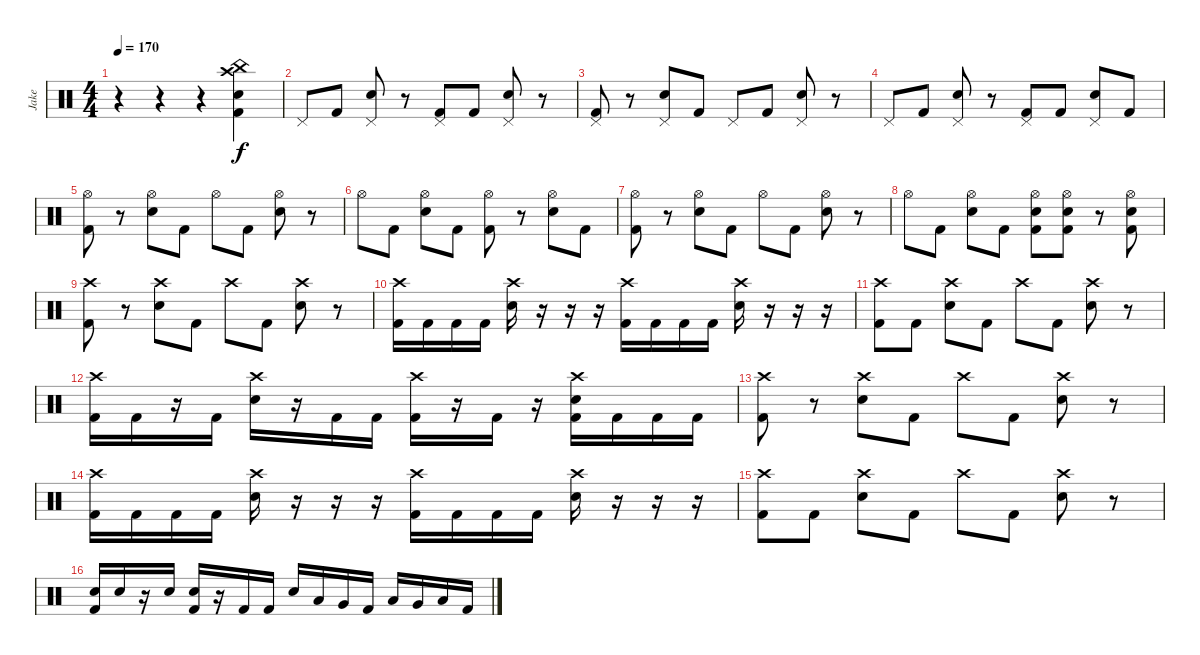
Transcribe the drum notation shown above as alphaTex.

\track ("Jake" "Jake") {instrument percussion}
\staff {score}
\articulation defaults
\ts (4 4)
\tempo 170
\clef neutral
\ks c
r.4{dy f} r.4 r.4 ("Crash high (hit)" "China (hit)" "Electric Snare (hit)" "Kick (hit) 2").4 |
"Pedal Hi-Hat (hit)".8 "Kick (hit) 2".8 ("Pedal Hi-Hat (hit)" "Electric Snare (hit)").8 r.8 ("Pedal Hi-Hat (hit)" "Kick (hit) 2").8 "Kick (hit) 2".8 ("Pedal Hi-Hat (hit)" "Electric Snare (hit)").8 r.8 |
("Pedal Hi-Hat (hit)" "Kick (hit) 2").8 r.8 ("Pedal Hi-Hat (hit)" "Electric Snare (hit)").8 "Kick (hit) 2".8 "Pedal Hi-Hat (hit)".8 "Kick (hit) 2".8 ("Pedal Hi-Hat (hit)" "Electric Snare (hit)").8 r.8 |
"Pedal Hi-Hat (hit)".8 "Kick (hit) 2".8 ("Pedal Hi-Hat (hit)" "Electric Snare (hit)").8 r.8 ("Pedal Hi-Hat (hit)" "Kick (hit) 2").8 "Kick (hit) 2".8 ("Pedal Hi-Hat (hit)" "Electric Snare (hit)").8 "Kick (hit) 2".8 |
("Hi-Hat (open)" "Kick (hit) 2").8 r.8 ("Hi-Hat (open)" "Electric Snare (hit)").8 "Kick (hit) 2".8 "Hi-Hat (open)".8 "Kick (hit) 2".8 ("Hi-Hat (open)" "Electric Snare (hit)").8 r.8 |
"Hi-Hat (open)".8 "Kick (hit) 2".8 ("Hi-Hat (open)" "Electric Snare (hit)").8 "Kick (hit) 2".8 ("Hi-Hat (open)" "Kick (hit) 2").8 r.8 ("Hi-Hat (open)" "Electric Snare (hit)").8 "Kick (hit) 2".8 |
("Hi-Hat (open)" "Kick (hit) 2").8 r.8 ("Hi-Hat (open)" "Electric Snare (hit)").8 "Kick (hit) 2".8 "Hi-Hat (open)".8 "Kick (hit) 2".8 ("Hi-Hat (open)" "Electric Snare (hit)").8 r.8 |
"Hi-Hat (open)".8 "Kick (hit) 2".8 ("Hi-Hat (open)" "Electric Snare (hit)").8 "Kick (hit) 2".8 ("Hi-Hat (open)" "Electric Snare (hit)" "Kick (hit) 2").8 ("Hi-Hat (open)" "Electric Snare (hit)" "Kick (hit) 2").8 r.8 ("Hi-Hat (open)" "Electric Snare (hit)" "Kick (hit) 2").8 |
("Crash high (hit)" "Kick (hit) 2").8 r.8 ("Crash high (hit)" "Electric Snare (hit)").8 "Kick (hit) 2".8 "Crash high (hit)".8 "Kick (hit) 2".8 ("Crash high (hit)" "Electric Snare (hit)").8 r.8 |
("Crash high (hit)" "Kick (hit) 2").16 "Kick (hit) 2".16 "Kick (hit) 2".16 "Kick (hit) 2".16 ("Crash high (hit)" "Electric Snare (hit)").16 r.16 r.16 r.16 ("Crash high (hit)" "Kick (hit) 2").16 "Kick (hit) 2".16 "Kick (hit) 2".16 "Kick (hit) 2".16 ("Crash high (hit)" "Electric Snare (hit)").16 r.16 r.16 r.16 |
("Crash high (hit)" "Kick (hit) 2").8 "Kick (hit) 2".8 ("Crash high (hit)" "Electric Snare (hit)").8 "Kick (hit) 2".8 "Crash high (hit)".8 "Kick (hit) 2".8 ("Crash high (hit)" "Electric Snare (hit)").8 r.8 |
("Crash high (hit)" "Kick (hit) 2").16 "Kick (hit) 2".16 r.16 "Kick (hit) 2".16 ("Crash high (hit)" "Electric Snare (hit)").16 r.16 "Kick (hit) 2".16 "Kick (hit) 2".16 ("Crash high (hit)" "Kick (hit) 2").16 r.16 "Kick (hit) 2".16 r.16 ("Crash high (hit)" "Electric Snare (hit)" "Kick (hit) 2").16 "Kick (hit) 2".16 "Kick (hit) 2".16 "Kick (hit) 2".16 |
("Crash high (hit)" "Kick (hit) 2").8 r.8 ("Crash high (hit)" "Electric Snare (hit)").8 "Kick (hit) 2".8 "Crash high (hit)".8 "Kick (hit) 2".8 ("Crash high (hit)" "Electric Snare (hit)").8 r.8 |
("Crash high (hit)" "Kick (hit) 2").16 "Kick (hit) 2".16 "Kick (hit) 2".16 "Kick (hit) 2".16 ("Crash high (hit)" "Electric Snare (hit)").16 r.16 r.16 r.16 ("Crash high (hit)" "Kick (hit) 2").16 "Kick (hit) 2".16 "Kick (hit) 2".16 "Kick (hit) 2".16 ("Crash high (hit)" "Electric Snare (hit)").16 r.16 r.16 r.16 |
("Crash high (hit)" "Kick (hit) 2").8 "Kick (hit) 2".8 ("Crash high (hit)" "Electric Snare (hit)").8 "Kick (hit) 2".8 "Crash high (hit)".8 "Kick (hit) 2".8 ("Crash high (hit)" "Electric Snare (hit)").8 r.8 |
("Electric Snare (hit)" "Kick (hit) 2").16 "Electric Snare (hit)".16 r.16 "Electric Snare (hit)".16 ("Electric Snare (hit)" "Kick (hit) 2").16 r.16 "Kick (hit) 2".16 "Kick (hit) 2".16 "Electric Snare (hit)".16 "Low Tom (hit)".16 "Very Low Tom (hit)".16 "Kick (hit) 2".16 "Low Tom (hit)".16 "Very Low Tom (hit)".16 "Low Floor Tom (hit)".16 "Kick (hit) 2".16
